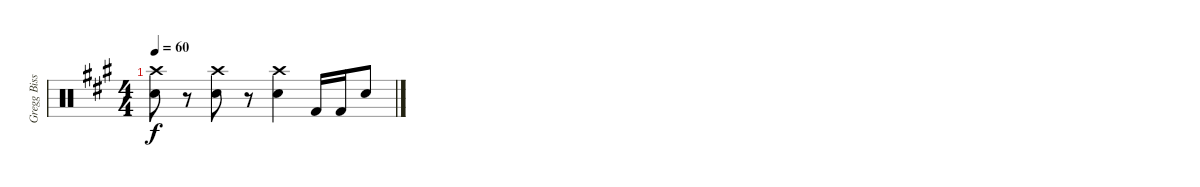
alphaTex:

\track ("Gregg Bissonette" "Gregg Biss") {instrument percussion}
\staff {score}
\articulation defaults
\ts (4 4)
\tempo 60
\clef neutral
\ks f#minor
("Crash high (hit)" "Electric Snare (hit)").8{dy f} r.8 ("Crash high (hit)" "Electric Snare (hit)").8 r.8 ("Crash high (hit)" "Electric Snare (hit)").4 "Kick (hit) 2".16 "Kick (hit) 2".16 "Electric Snare (hit)".8
